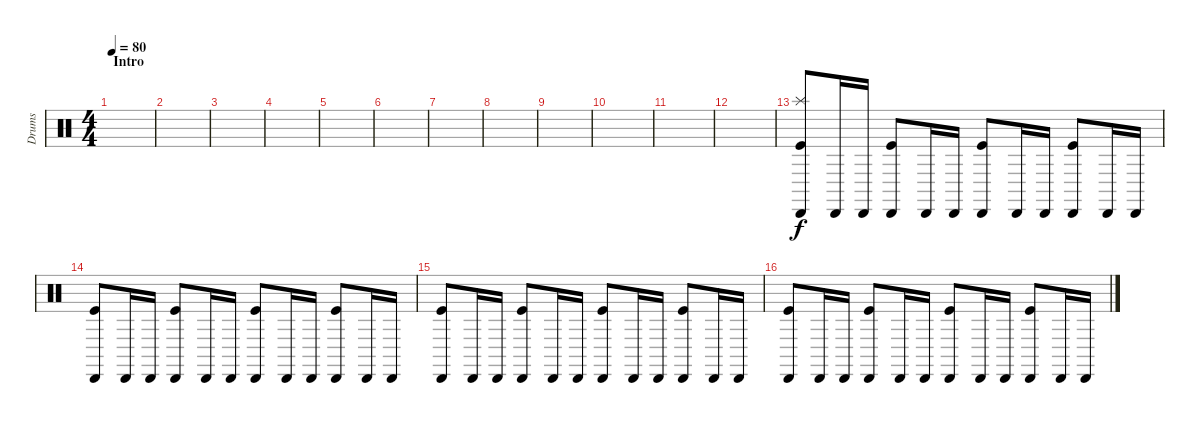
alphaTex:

\track ("Drums" "Drums") {instrument percussion}
\staff {score}
\articulation defaults
\ts (4 4)
\section ("" "Intro")
\tempo 80
\clef neutral
\ks c
|
|
|
|
|
|
|
|
|
|
|
|
("Cabasa (hit)" "Splash (hit)" "Kick (hit)").8 "Cabasa (hit)".16 "Cabasa (hit)".16 ("Cabasa (hit)" "Kick (hit)").8 "Cabasa (hit)".16 "Cabasa (hit)".16 ("Cabasa (hit)" "Kick (hit)").8 "Cabasa (hit)".16 "Cabasa (hit)".16 ("Cabasa (hit)" "Kick (hit)").8 "Cabasa (hit)".16 "Cabasa (hit)".16 |
("Cabasa (hit)" "Kick (hit)").8 "Cabasa (hit)".16 "Cabasa (hit)".16 ("Cabasa (hit)" "Kick (hit)").8 "Cabasa (hit)".16 "Cabasa (hit)".16 ("Cabasa (hit)" "Kick (hit)").8 "Cabasa (hit)".16 "Cabasa (hit)".16 ("Cabasa (hit)" "Kick (hit)").8 "Cabasa (hit)".16 "Cabasa (hit)".16 |
("Cabasa (hit)" "Kick (hit)").8 "Cabasa (hit)".16 "Cabasa (hit)".16 ("Cabasa (hit)" "Kick (hit)").8 "Cabasa (hit)".16 "Cabasa (hit)".16 ("Cabasa (hit)" "Kick (hit)").8 "Cabasa (hit)".16 "Cabasa (hit)".16 ("Cabasa (hit)" "Kick (hit)").8 "Cabasa (hit)".16 "Cabasa (hit)".16 |
("Cabasa (hit)" "Kick (hit)").8 "Cabasa (hit)".16 "Cabasa (hit)".16 ("Cabasa (hit)" "Kick (hit)").8 "Cabasa (hit)".16 "Cabasa (hit)".16 ("Cabasa (hit)" "Kick (hit)").8 "Cabasa (hit)".16 "Cabasa (hit)".16 ("Cabasa (hit)" "Kick (hit)").8 "Cabasa (hit)".16 "Cabasa (hit)".16
